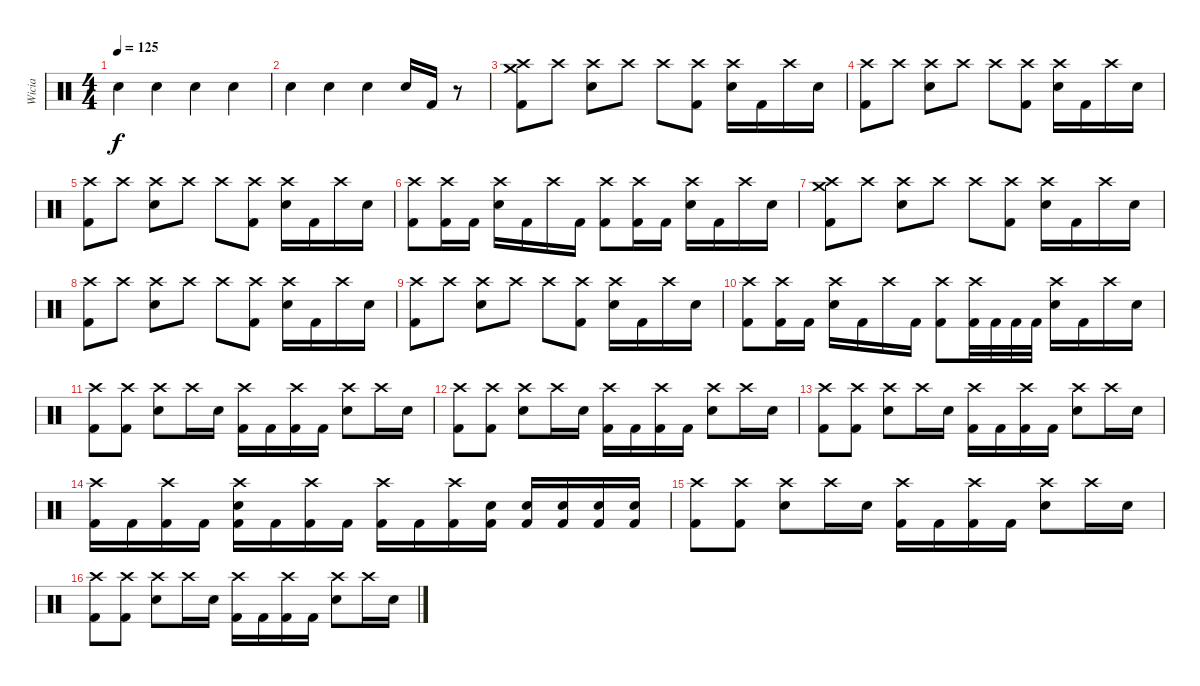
\track ("Wicia" "Wicia") {instrument percussion}
\staff {score}
\articulation defaults
\ts (4 4)
\tempo 125
\clef neutral
\ks c "Electric Snare (hit)".4{dy f} "Electric Snare (hit)".4 "Electric Snare (hit)".4 "Electric Snare (hit)".4
|
"Electric Snare (hit)".4 "Electric Snare (hit)".4 "Electric Snare (hit)".4 "Electric Snare (hit)".16 "Kick (hit) 2".16 r.8 |
("Crash high (hit)" "Crash medium (hit)" "Kick (hit) 2").8 "Crash high (hit)".8 ("Crash high (hit)" "Electric Snare (hit)").8 "Crash high (hit)".8 "Crash high (hit)".8 ("Crash high (hit)" "Kick (hit) 2").8 ("Crash high (hit)" "Electric Snare (hit)").16 "Kick (hit) 2".16 "Crash high (hit)".16 "Electric Snare (hit)".16 |
("Crash high (hit)" "Kick (hit) 2").8 "Crash high (hit)".8 ("Crash high (hit)" "Electric Snare (hit)").8 "Crash high (hit)".8 "Crash high (hit)".8 ("Crash high (hit)" "Kick (hit) 2").8 ("Crash high (hit)" "Electric Snare (hit)").16 "Kick (hit) 2".16 "Crash high (hit)".16 "Electric Snare (hit)".16 |
("Crash high (hit)" "Kick (hit) 2").8 "Crash high (hit)".8 ("Crash high (hit)" "Electric Snare (hit)").8 "Crash high (hit)".8 "Crash high (hit)".8 ("Crash high (hit)" "Kick (hit) 2").8 ("Crash high (hit)" "Electric Snare (hit)").16 "Kick (hit) 2".16 "Crash high (hit)".16 "Electric Snare (hit)".16 |
("Crash high (hit)" "Kick (hit) 2").8 ("Crash high (hit)" "Kick (hit) 2").16 "Kick (hit) 2".16 ("Crash high (hit)" "Electric Snare (hit)").16 "Kick (hit) 2".16 "Crash high (hit)".16 "Kick (hit) 2".16 ("Crash high (hit)" "Kick (hit) 2").8 ("Crash high (hit)" "Kick (hit) 2").16 "Kick (hit) 2".16 ("Crash high (hit)" "Electric Snare (hit)").16 "Kick (hit) 2".16 "Crash high (hit)".16 "Electric Snare (hit)".16 |
("Crash high (hit)" "Crash medium (hit)" "Kick (hit) 2").8 "Crash high (hit)".8 ("Crash high (hit)" "Electric Snare (hit)").8 "Crash high (hit)".8 "Crash high (hit)".8 ("Crash high (hit)" "Kick (hit) 2").8 ("Crash high (hit)" "Electric Snare (hit)").16 "Kick (hit) 2".16 "Crash high (hit)".16 "Electric Snare (hit)".16 |
("Crash high (hit)" "Kick (hit) 2").8 "Crash high (hit)".8 ("Crash high (hit)" "Electric Snare (hit)").8 "Crash high (hit)".8 "Crash high (hit)".8 ("Crash high (hit)" "Kick (hit) 2").8 ("Crash high (hit)" "Electric Snare (hit)").16 "Kick (hit) 2".16 "Crash high (hit)".16 "Electric Snare (hit)".16 |
("Crash high (hit)" "Kick (hit) 2").8 "Crash high (hit)".8 ("Crash high (hit)" "Electric Snare (hit)").8 "Crash high (hit)".8 "Crash high (hit)".8 ("Crash high (hit)" "Kick (hit) 2").8 ("Crash high (hit)" "Electric Snare (hit)").16 "Kick (hit) 2".16 "Crash high (hit)".16 "Electric Snare (hit)".16 |
("Crash high (hit)" "Kick (hit) 2").8 ("Crash high (hit)" "Kick (hit) 2").16 "Kick (hit) 2".16 ("Crash high (hit)" "Electric Snare (hit)").16 "Kick (hit) 2".16 "Crash high (hit)".16 "Kick (hit) 2".16 ("Crash high (hit)" "Kick (hit) 2").8 ("Crash high (hit)" "Kick (hit) 2").32 "Kick (hit) 2".32 "Kick (hit) 2".32 "Kick (hit) 2".32 ("Crash high (hit)" "Electric Snare (hit)").16 "Kick (hit) 2".16 "Crash high (hit)".16 "Electric Snare (hit)".16 |
("Crash high (hit)" "Kick (hit) 2").8 ("Crash high (hit)" "Kick (hit) 2").8 ("Crash high (hit)" "Electric Snare (hit)").8 "Crash high (hit)".16 "Electric Snare (hit)".16 ("Crash high (hit)" "Kick (hit) 2").16 "Kick (hit) 2".16 ("Crash high (hit)" "Kick (hit) 2").16 "Kick (hit) 2".16 ("Crash high (hit)" "Electric Snare (hit)").8 "Crash high (hit)".16 "Electric Snare (hit)".16 |
("Crash high (hit)" "Kick (hit) 2").8 ("Crash high (hit)" "Kick (hit) 2").8 ("Crash high (hit)" "Electric Snare (hit)").8 "Crash high (hit)".16 "Electric Snare (hit)".16 ("Crash high (hit)" "Kick (hit) 2").16 "Kick (hit) 2".16 ("Crash high (hit)" "Kick (hit) 2").16 "Kick (hit) 2".16 ("Crash high (hit)" "Electric Snare (hit)").8 "Crash high (hit)".16 "Electric Snare (hit)".16 |
("Crash high (hit)" "Kick (hit) 2").8 ("Crash high (hit)" "Kick (hit) 2").8 ("Crash high (hit)" "Electric Snare (hit)").8 "Crash high (hit)".16 "Electric Snare (hit)".16 ("Crash high (hit)" "Kick (hit) 2").16 "Kick (hit) 2".16 ("Crash high (hit)" "Kick (hit) 2").16 "Kick (hit) 2".16 ("Crash high (hit)" "Electric Snare (hit)").8 "Crash high (hit)".16 "Electric Snare (hit)".16 |
("Crash high (hit)" "Kick (hit) 2").16 "Kick (hit) 2".16 ("Crash high (hit)" "Kick (hit) 2").16 "Kick (hit) 2".16 ("Crash high (hit)" "Electric Snare (hit)" "Kick (hit) 2").16 "Kick (hit) 2".16 ("Crash high (hit)" "Kick (hit) 2").16 "Kick (hit) 2".16 ("Crash high (hit)" "Kick (hit) 2").16 "Kick (hit) 2".16 ("Crash high (hit)" "Kick (hit) 2").16 ("Electric Snare (hit)" "Kick (hit) 2").16 ("Electric Snare (hit)" "Kick (hit) 2").16 ("Electric Snare (hit)" "Kick (hit) 2").16 ("Electric Snare (hit)" "Kick (hit) 2").16 ("Electric Snare (hit)" "Kick (hit) 2").16 |
("Crash high (hit)" "Kick (hit) 2").8 ("Crash high (hit)" "Kick (hit) 2").8 ("Crash high (hit)" "Electric Snare (hit)").8 "Crash high (hit)".16 "Electric Snare (hit)".16 ("Crash high (hit)" "Kick (hit) 2").16 "Kick (hit) 2".16 ("Crash high (hit)" "Kick (hit) 2").16 "Kick (hit) 2".16 ("Crash high (hit)" "Electric Snare (hit)").8 "Crash high (hit)".16 "Electric Snare (hit)".16 |
("Crash high (hit)" "Kick (hit) 2").8 ("Crash high (hit)" "Kick (hit) 2").8 ("Crash high (hit)" "Electric Snare (hit)").8 "Crash high (hit)".16 "Electric Snare (hit)".16 ("Crash high (hit)" "Kick (hit) 2").16 "Kick (hit) 2".16 ("Crash high (hit)" "Kick (hit) 2").16 "Kick (hit) 2".16 ("Crash high (hit)" "Electric Snare (hit)").8 "Crash high (hit)".16 "Electric Snare (hit)".16
